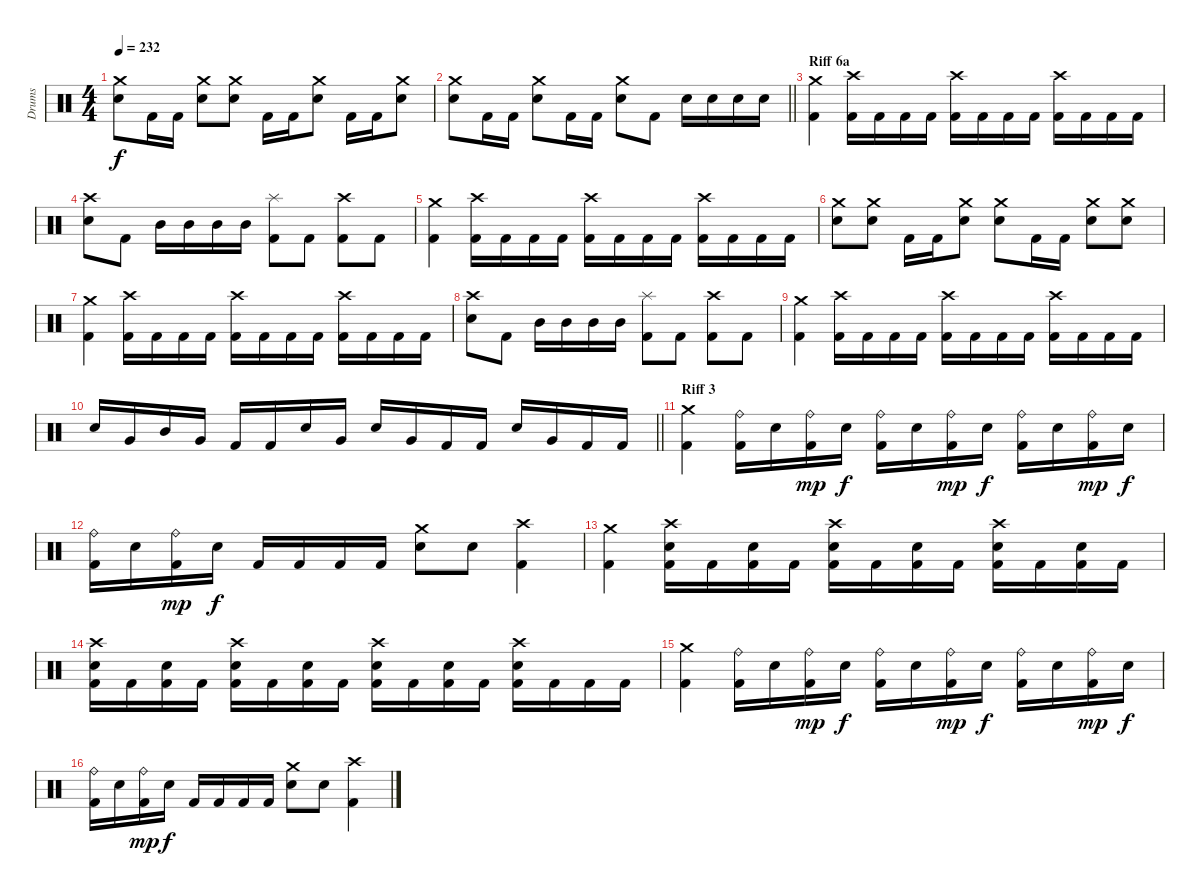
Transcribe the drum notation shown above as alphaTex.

\track ("Drums" "Drums") {instrument percussion}
\staff {score}
\articulation defaults
\ts (4 4)
\tempo 232
\clef neutral
\ks c
("Electric Snare (hit)" "Crash medium (hit)").8{dy f} "Kick (hit) 2".16 "Kick (hit) 2".16 ("Electric Snare (hit)" "Crash medium (hit)").8 ("Electric Snare (hit)" "Crash medium (hit)").8 "Kick (hit) 2".16 "Kick (hit) 2".16 ("Electric Snare (hit)" "Crash medium (hit)").8 "Kick (hit) 2".16 "Kick (hit) 2".16 ("Electric Snare (hit)" "Crash medium (hit)").8 |
\barLineRight lightlight
("Electric Snare (hit)" "Crash medium (hit)").8 "Kick (hit) 2".16 "Kick (hit) 2".16 ("Electric Snare (hit)" "Crash medium (hit)").8 "Kick (hit) 2".16 "Kick (hit) 2".16 ("Electric Snare (hit)" "Crash medium (hit)").8 "Kick (hit) 2".8 "Electric Snare (hit)".16 "Electric Snare (hit)".16 "Electric Snare (hit)".16 "Electric Snare (hit)".16 |
\section ("" "Riff 6a")
("Crash medium (hit)" "Kick (hit) 2").4 ("Crash high (hit)" "Kick (hit) 2").16 "Kick (hit) 2".16 "Kick (hit) 2".16 "Kick (hit) 2".16 ("Crash high (hit)" "Kick (hit) 2").16 "Kick (hit) 2".16 "Kick (hit) 2".16 "Kick (hit) 2".16 ("Crash high (hit)" "Kick (hit) 2").16 "Kick (hit) 2".16 "Kick (hit) 2".16 "Kick (hit) 2".16 |
("Electric Snare (hit)" "Crash high (hit)").8 "Kick (hit) 2".8 "Mid Tom (hit)".16 "Mid Tom (hit)".16 "Mid Tom (hit)".16 "Mid Tom (hit)".16 ("Splash (hit)" "Kick (hit) 2").8 "Kick (hit) 2".8 ("Crash high (hit)" "Kick (hit) 2").8 "Kick (hit) 2".8 |
("Crash medium (hit)" "Kick (hit) 2").4 ("Crash high (hit)" "Kick (hit) 2").16 "Kick (hit) 2".16 "Kick (hit) 2".16 "Kick (hit) 2".16 ("Crash high (hit)" "Kick (hit) 2").16 "Kick (hit) 2".16 "Kick (hit) 2".16 "Kick (hit) 2".16 ("Crash high (hit)" "Kick (hit) 2").16 "Kick (hit) 2".16 "Kick (hit) 2".16 "Kick (hit) 2".16 |
("Crash medium (hit)" "Electric Snare (hit)").8 ("Crash medium (hit)" "Electric Snare (hit)").8 "Kick (hit) 2".16 "Kick (hit) 2".16 ("Crash medium (hit)" "Electric Snare (hit)").8 ("Crash medium (hit)" "Electric Snare (hit)").8 "Kick (hit) 2".16 "Kick (hit) 2".16 ("Crash medium (hit)" "Electric Snare (hit)").8 ("Crash medium (hit)" "Electric Snare (hit)").8 |
("Crash medium (hit)" "Kick (hit) 2").4 ("Crash high (hit)" "Kick (hit) 2").16 "Kick (hit) 2".16 "Kick (hit) 2".16 "Kick (hit) 2".16 ("Crash high (hit)" "Kick (hit) 2").16 "Kick (hit) 2".16 "Kick (hit) 2".16 "Kick (hit) 2".16 ("Crash high (hit)" "Kick (hit) 2").16 "Kick (hit) 2".16 "Kick (hit) 2".16 "Kick (hit) 2".16 |
("Electric Snare (hit)" "Crash high (hit)").8 "Kick (hit) 2".8 "Mid Tom (hit)".16 "Mid Tom (hit)".16 "Mid Tom (hit)".16 "Mid Tom (hit)".16 ("Splash (hit)" "Kick (hit) 2").8 "Kick (hit) 2".8 ("Crash high (hit)" "Kick (hit) 2").8 "Kick (hit) 2".8 |
("Crash medium (hit)" "Kick (hit) 2").4 ("Crash high (hit)" "Kick (hit) 2").16 "Kick (hit) 2".16 "Kick (hit) 2".16 "Kick (hit) 2".16 ("Crash high (hit)" "Kick (hit) 2").16 "Kick (hit) 2".16 "Kick (hit) 2".16 "Kick (hit) 2".16 ("Crash high (hit)" "Kick (hit) 2").16 "Kick (hit) 2".16 "Kick (hit) 2".16 "Kick (hit) 2".16 |
\barLineRight lightlight "Electric Snare (hit)".16 "Very Low Tom (hit)".16 "Mid Tom (hit)".16 "Very Low Tom (hit)".16 "Kick (hit) 2".16 "Kick (hit) 2".16 "Electric Snare (hit)".16 "Very Low Tom (hit)".16 "Electric Snare (hit)".16 "Very Low Tom (hit)".16 "Kick (hit) 2".16 "Kick (hit) 2".16 "Electric Snare (hit)".16 "Very Low Tom (hit)".16 "Kick (hit) 2".16 "Kick (hit) 2".16
|
\section ("" "Riff 3")
("Crash medium (hit)" "Kick (hit) 2").4 ("Ride (bell)" "Kick (hit) 2").16 "Electric Snare (hit)".16 ("Ride (bell)" "Kick (hit) 2").16{dy mp} "Electric Snare (hit)".16{dy f} ("Ride (bell)" "Kick (hit) 2").16 "Electric Snare (hit)".16 ("Ride (bell)" "Kick (hit) 2").16{dy mp} "Electric Snare (hit)".16{dy f} ("Ride (bell)" "Kick (hit) 2").16 "Electric Snare (hit)".16 ("Ride (bell)" "Kick (hit) 2").16{dy mp} "Electric Snare (hit)".16{dy f} |
("Ride (bell)" "Kick (hit) 2").16 "Electric Snare (hit)".16 ("Ride (bell)" "Kick (hit) 2").16{dy mp} "Electric Snare (hit)".16{dy f} "Kick (hit) 2".16 "Kick (hit) 2".16 "Kick (hit) 2".16 "Kick (hit) 2".16 ("Crash medium (hit)" "Electric Snare (hit)").8 "Electric Snare (hit)".8 ("Crash high (hit)" "Kick (hit) 2").4 |
("Crash medium (hit)" "Kick (hit) 2").4 ("Kick (hit) 2" "Electric Snare (hit)" "Crash high (hit)").16 "Kick (hit) 2".16 ("Kick (hit) 2" "Electric Snare (hit)").16 "Kick (hit) 2".16 ("Kick (hit) 2" "Electric Snare (hit)" "Crash high (hit)").16 "Kick (hit) 2".16 ("Kick (hit) 2" "Electric Snare (hit)").16 "Kick (hit) 2".16 ("Kick (hit) 2" "Electric Snare (hit)" "Crash high (hit)").16 "Kick (hit) 2".16 ("Kick (hit) 2" "Electric Snare (hit)").16 "Kick (hit) 2".16 |
("Kick (hit) 2" "Electric Snare (hit)" "Crash high (hit)").16 "Kick (hit) 2".16 ("Kick (hit) 2" "Electric Snare (hit)").16 "Kick (hit) 2".16 ("Kick (hit) 2" "Electric Snare (hit)" "Crash high (hit)").16 "Kick (hit) 2".16 ("Kick (hit) 2" "Electric Snare (hit)").16 "Kick (hit) 2".16 ("Kick (hit) 2" "Electric Snare (hit)" "Crash high (hit)").16 "Kick (hit) 2".16 ("Kick (hit) 2" "Electric Snare (hit)").16 "Kick (hit) 2".16 ("Kick (hit) 2" "Electric Snare (hit)" "Crash high (hit)").16 "Kick (hit) 2".16 "Kick (hit) 2".16 "Kick (hit) 2".16 |
("Crash medium (hit)" "Kick (hit) 2").4 ("Ride (bell)" "Kick (hit) 2").16 "Electric Snare (hit)".16 ("Ride (bell)" "Kick (hit) 2").16{dy mp} "Electric Snare (hit)".16{dy f} ("Ride (bell)" "Kick (hit) 2").16 "Electric Snare (hit)".16 ("Ride (bell)" "Kick (hit) 2").16{dy mp} "Electric Snare (hit)".16{dy f} ("Ride (bell)" "Kick (hit) 2").16 "Electric Snare (hit)".16 ("Ride (bell)" "Kick (hit) 2").16{dy mp} "Electric Snare (hit)".16{dy f} |
("Ride (bell)" "Kick (hit) 2").16 "Electric Snare (hit)".16 ("Ride (bell)" "Kick (hit) 2").16{dy mp} "Electric Snare (hit)".16{dy f} "Kick (hit) 2".16 "Kick (hit) 2".16 "Kick (hit) 2".16 "Kick (hit) 2".16 ("Crash medium (hit)" "Electric Snare (hit)").8 "Electric Snare (hit)".8 ("Crash high (hit)" "Kick (hit) 2").4
